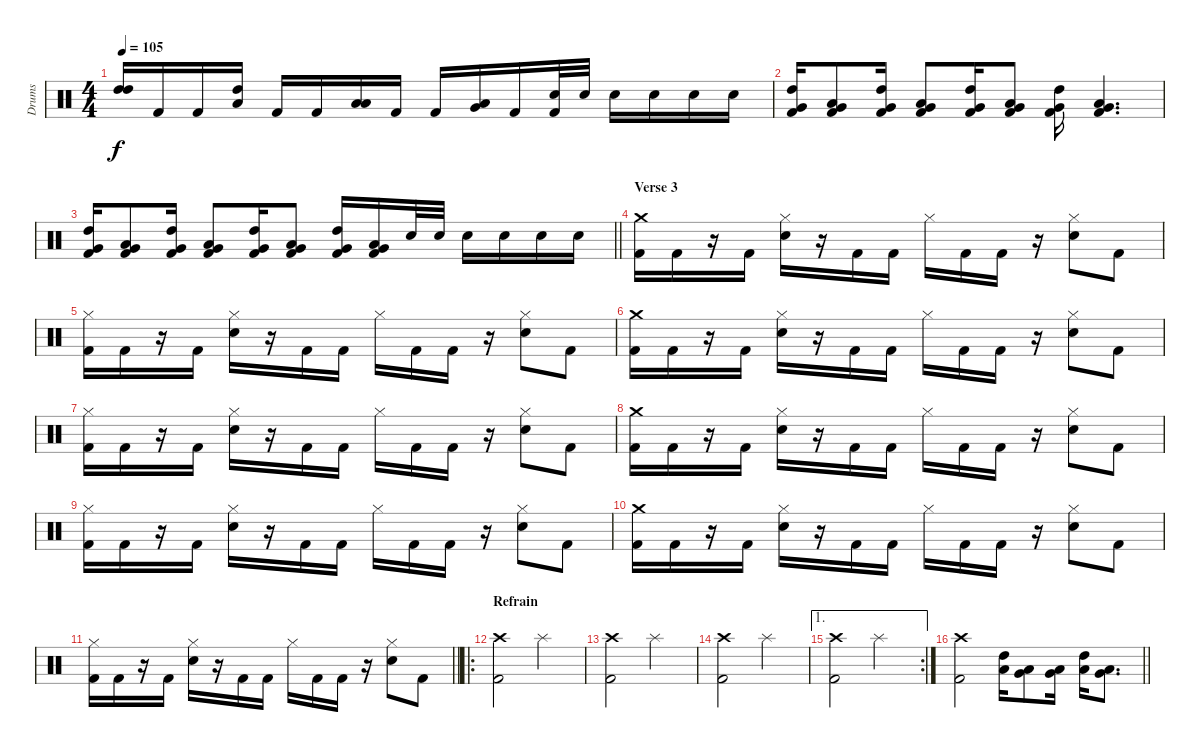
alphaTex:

\track ("Drums" "Drums") {instrument percussion}
\staff {score}
\articulation defaults
\ts (4 4)
\tempo 105
\clef neutral
\ks c
("High Tom (hit)" "High Tom (hit)").16{dy f} "Kick (hit) 2".16 "Kick (hit) 2".16 ("High Tom (hit)" "Low Tom (hit)").16 "Kick (hit) 2".16 "Kick (hit) 2".16 ("Low Tom (hit)" "Low Tom (hit)").16 "Kick (hit) 2".16 "Kick (hit) 2".16 ("Low Tom (hit)" "Very Low Tom (hit)").16 "Kick (hit) 2".16 ("Snare (hit) 2" "Kick (hit) 2").32 "Snare (hit) 2".32 "Snare (hit) 2".16 "Snare (hit) 2".16 "Snare (hit) 2".16 "Snare (hit) 2".16 |
("Kick (hit) 2" "Very Low Tom (hit)" "High Tom (hit)").16 ("Kick (hit) 2" "Very Low Tom (hit)" "Low Tom (hit)").8 ("Kick (hit) 2" "Very Low Tom (hit)" "High Tom (hit)").16 ("Kick (hit) 2" "Very Low Tom (hit)" "Low Tom (hit)").8 ("Kick (hit) 2" "Very Low Tom (hit)" "High Tom (hit)").16 ("Kick (hit) 2" "Very Low Tom (hit)" "Low Tom (hit)").8 ("Kick (hit) 2" "Very Low Tom (hit)" "High Tom (hit)").16 ("Kick (hit) 2" "Very Low Tom (hit)" "Low Tom (hit)").4{d} |
\barLineRight lightlight
("Kick (hit) 2" "Very Low Tom (hit)" "High Tom (hit)").16 ("Kick (hit) 2" "Very Low Tom (hit)" "Low Tom (hit)").8 ("Kick (hit) 2" "Very Low Tom (hit)" "High Tom (hit)").16 ("Kick (hit) 2" "Very Low Tom (hit)" "Low Tom (hit)").8 ("Kick (hit) 2" "Very Low Tom (hit)" "High Tom (hit)").16 ("Kick (hit) 2" "Very Low Tom (hit)" "Low Tom (hit)").8 ("Kick (hit) 2" "Very Low Tom (hit)" "High Tom (hit)").16 ("Kick (hit) 2" "Very Low Tom (hit)" "Low Tom (hit)").16 "Snare (hit) 2".32 "Snare (hit) 2".32 "Snare (hit) 2".16 "Snare (hit) 2".16 "Snare (hit) 2".16 "Snare (hit) 2".16 |
\section ("" "Verse 3")
("Kick (hit) 2" "Crash medium (hit)").16 "Kick (hit) 2".16 r.16 "Kick (hit) 2".16 ("Snare (hit) 2" "Hi-Hat (closed)").16 r.16 "Kick (hit) 2".16 "Kick (hit) 2".16 "Hi-Hat (closed)".16 "Kick (hit) 2".16 "Kick (hit) 2".16 r.16 ("Snare (hit) 2" "Hi-Hat (closed)").8 "Kick (hit) 2".8 |
("Kick (hit) 2" "Hi-Hat (closed)").16 "Kick (hit) 2".16 r.16 "Kick (hit) 2".16 ("Snare (hit) 2" "Hi-Hat (closed)").16 r.16 "Kick (hit) 2".16 "Kick (hit) 2".16 "Hi-Hat (closed)".16 "Kick (hit) 2".16 "Kick (hit) 2".16 r.16 ("Snare (hit) 2" "Hi-Hat (closed)").8 "Kick (hit) 2".8 |
("Kick (hit) 2" "Crash medium (hit)").16 "Kick (hit) 2".16 r.16 "Kick (hit) 2".16 ("Snare (hit) 2" "Hi-Hat (closed)").16 r.16 "Kick (hit) 2".16 "Kick (hit) 2".16 "Hi-Hat (closed)".16 "Kick (hit) 2".16 "Kick (hit) 2".16 r.16 ("Snare (hit) 2" "Hi-Hat (closed)").8 "Kick (hit) 2".8 |
("Kick (hit) 2" "Hi-Hat (closed)").16 "Kick (hit) 2".16 r.16 "Kick (hit) 2".16 ("Snare (hit) 2" "Hi-Hat (closed)").16 r.16 "Kick (hit) 2".16 "Kick (hit) 2".16 "Hi-Hat (closed)".16 "Kick (hit) 2".16 "Kick (hit) 2".16 r.16 ("Snare (hit) 2" "Hi-Hat (closed)").8 "Kick (hit) 2".8 |
("Kick (hit) 2" "Crash medium (hit)").16 "Kick (hit) 2".16 r.16 "Kick (hit) 2".16 ("Snare (hit) 2" "Hi-Hat (closed)").16 r.16 "Kick (hit) 2".16 "Kick (hit) 2".16 "Hi-Hat (closed)".16 "Kick (hit) 2".16 "Kick (hit) 2".16 r.16 ("Snare (hit) 2" "Hi-Hat (closed)").8 "Kick (hit) 2".8 |
("Kick (hit) 2" "Hi-Hat (closed)").16 "Kick (hit) 2".16 r.16 "Kick (hit) 2".16 ("Snare (hit) 2" "Hi-Hat (closed)").16 r.16 "Kick (hit) 2".16 "Kick (hit) 2".16 "Hi-Hat (closed)".16 "Kick (hit) 2".16 "Kick (hit) 2".16 r.16 ("Snare (hit) 2" "Hi-Hat (closed)").8 "Kick (hit) 2".8 |
("Kick (hit) 2" "Crash medium (hit)").16 "Kick (hit) 2".16 r.16 "Kick (hit) 2".16 ("Snare (hit) 2" "Hi-Hat (closed)").16 r.16 "Kick (hit) 2".16 "Kick (hit) 2".16 "Hi-Hat (closed)".16 "Kick (hit) 2".16 "Kick (hit) 2".16 r.16 ("Snare (hit) 2" "Hi-Hat (closed)").8 "Kick (hit) 2".8 |
\barLineRight lightlight
("Kick (hit) 2" "Hi-Hat (closed)").16 "Kick (hit) 2".16 r.16 "Kick (hit) 2".16 ("Snare (hit) 2" "Hi-Hat (closed)").16 r.16 "Kick (hit) 2".16 "Kick (hit) 2".16 "Hi-Hat (closed)".16 "Kick (hit) 2".16 "Kick (hit) 2".16 r.16 ("Snare (hit) 2" "Hi-Hat (closed)").8 "Kick (hit) 2".8 |
\ro
\section ("" "Refrain")
("Kick (hit) 2" "Crash high (hit)").2 "Splash (hit)".2 |
("Kick (hit) 2" "Crash high (hit)").2 "Splash (hit)".2 |
("Kick (hit) 2" "Crash high (hit)").2 "Splash (hit)".2 |
\ae 1
\rc 2
("Kick (hit) 2" "Crash high (hit)").2 "Splash (hit)".2 |
\barLineRight lightlight
("Kick (hit) 2" "Crash high (hit)").2 ("High Tom (hit)" "Low Tom (hit)").16 ("Low Tom (hit)" "Very Low Tom (hit)").8 ("Low Tom (hit)" "Very Low Tom (hit)").16 ("High Tom (hit)" "Low Tom (hit)").16 ("Low Tom (hit)" "Very Low Tom (hit)").8{d}
